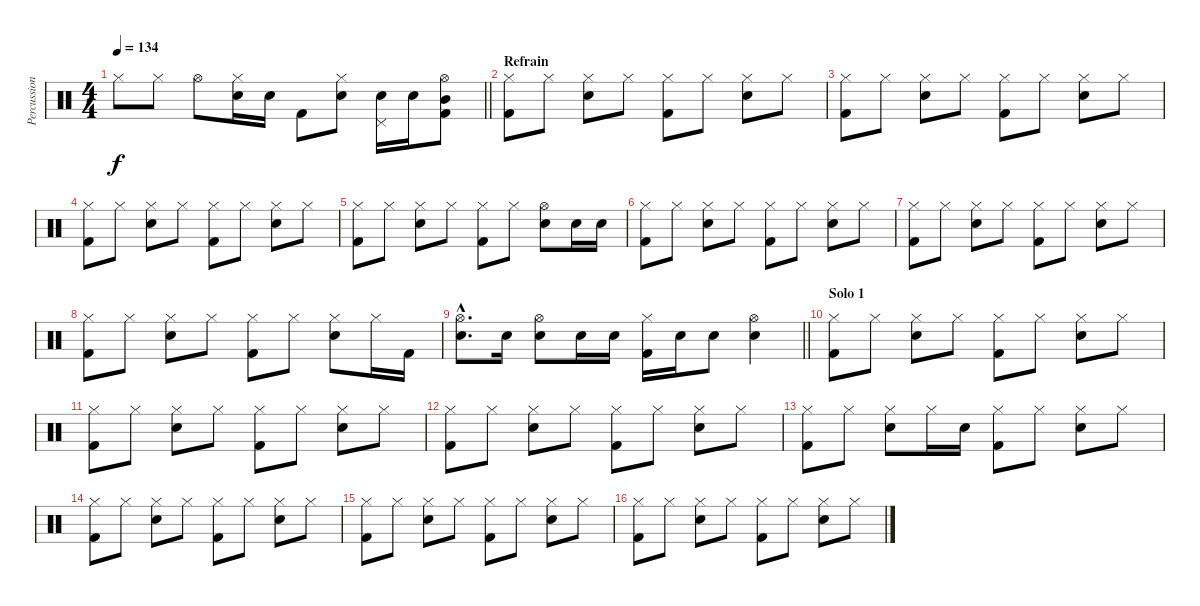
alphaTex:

\track ("Percussion" "Percussion") {instrument percussion}
\staff {score}
\articulation defaults
\ts (4 4)
\tempo 134
\clef neutral
\barLineRight lightlight
\ks c "Hi-Hat (closed)".8{dy f} "Hi-Hat (closed)".8 "Hi-Hat (open)".8
("Hi-Hat (closed)" "Snare (hit) 2").16 "Snare (hit) 2".16 "Kick (hit) 2".8 ("Hi-Hat (closed)" "Snare (hit) 2").8 ("Pedal Hi-Hat (hit)" "Snare (hit) 2").16 "Snare (hit) 2".16 ("Hi-Hat (open)" "Mid Tom (hit)" "Kick (hit) 2").8 |
\section ("" "Refrain")
("Hi-Hat (closed)" "Kick (hit) 2").8 "Hi-Hat (closed)".8 ("Hi-Hat (closed)" "Snare (hit) 2").8 "Hi-Hat (closed)".8 ("Hi-Hat (closed)" "Kick (hit) 2").8 "Hi-Hat (closed)".8 ("Hi-Hat (closed)" "Snare (hit) 2").8 "Hi-Hat (closed)".8 |
("Hi-Hat (closed)" "Kick (hit) 2").8 "Hi-Hat (closed)".8 ("Hi-Hat (closed)" "Snare (hit) 2").8 "Hi-Hat (closed)".8 ("Hi-Hat (closed)" "Kick (hit) 2").8 "Hi-Hat (closed)".8 ("Hi-Hat (closed)" "Snare (hit) 2").8 "Hi-Hat (closed)".8 |
("Hi-Hat (closed)" "Kick (hit) 2").8 "Hi-Hat (closed)".8 ("Hi-Hat (closed)" "Snare (hit) 2").8 "Hi-Hat (closed)".8 ("Hi-Hat (closed)" "Kick (hit) 2").8 "Hi-Hat (closed)".8 ("Hi-Hat (closed)" "Snare (hit) 2").8 "Hi-Hat (closed)".8 |
("Hi-Hat (closed)" "Kick (hit) 2").8 "Hi-Hat (closed)".8 ("Hi-Hat (closed)" "Snare (hit) 2").8 "Hi-Hat (closed)".8 ("Hi-Hat (closed)" "Kick (hit) 2").8 "Hi-Hat (closed)".8 ("Hi-Hat (open)" "Snare (hit) 2").8 "Snare (hit) 2".16 "Snare (hit) 2".16 |
("Hi-Hat (closed)" "Kick (hit) 2").8 "Hi-Hat (closed)".8 ("Hi-Hat (closed)" "Snare (hit) 2").8 "Hi-Hat (closed)".8 ("Hi-Hat (closed)" "Kick (hit) 2").8 "Hi-Hat (closed)".8 ("Hi-Hat (closed)" "Snare (hit) 2").8 "Hi-Hat (closed)".8 |
("Hi-Hat (closed)" "Kick (hit) 2").8 "Hi-Hat (closed)".8 ("Hi-Hat (closed)" "Snare (hit) 2").8 "Hi-Hat (closed)".8 ("Hi-Hat (closed)" "Kick (hit) 2").8 "Hi-Hat (closed)".8 ("Hi-Hat (closed)" "Snare (hit) 2").8 "Hi-Hat (closed)".8 |
("Hi-Hat (closed)" "Kick (hit) 2").8 "Hi-Hat (closed)".8 ("Hi-Hat (closed)" "Snare (hit) 2").8 "Hi-Hat (closed)".8 ("Hi-Hat (closed)" "Kick (hit) 2").8 "Hi-Hat (closed)".8 ("Hi-Hat (closed)" "Snare (hit) 2").8 "Hi-Hat (closed)".16 "Kick (hit) 2".16 |
\barLineRight lightlight
("Hi-Hat (open)"{hac} "Snare (hit) 2"{hac}).8{d} "Snare (hit) 2".16 ("Hi-Hat (open)" "Snare (hit) 2").8 "Snare (hit) 2".16 "Snare (hit) 2".16 ("Hi-Hat (closed)" "Kick (hit) 2").16 "Snare (hit) 2".16 "Snare (hit) 2".8 ("Hi-Hat (open)" "Snare (hit) 2").4 |
\section ("" "Solo 1")
("Hi-Hat (closed)" "Kick (hit) 2").8 "Hi-Hat (closed)".8 ("Hi-Hat (closed)" "Snare (hit) 2").8 "Hi-Hat (closed)".8 ("Hi-Hat (closed)" "Kick (hit) 2").8 "Hi-Hat (closed)".8 ("Hi-Hat (closed)" "Snare (hit) 2").8 "Hi-Hat (closed)".8 |
("Hi-Hat (closed)" "Kick (hit) 2").8 "Hi-Hat (closed)".8 ("Hi-Hat (closed)" "Snare (hit) 2").8 "Hi-Hat (closed)".8 ("Hi-Hat (closed)" "Kick (hit) 2").8 "Hi-Hat (closed)".8 ("Hi-Hat (closed)" "Snare (hit) 2").8 "Hi-Hat (closed)".8 |
("Hi-Hat (closed)" "Kick (hit) 2").8 "Hi-Hat (closed)".8 ("Hi-Hat (closed)" "Snare (hit) 2").8 "Hi-Hat (closed)".8 ("Hi-Hat (closed)" "Kick (hit) 2").8 "Hi-Hat (closed)".8 ("Hi-Hat (closed)" "Snare (hit) 2").8 "Hi-Hat (closed)".8 |
("Hi-Hat (closed)" "Kick (hit) 2").8 "Hi-Hat (closed)".8 ("Hi-Hat (closed)" "Snare (hit) 2").8 "Hi-Hat (closed)".16 "Snare (hit) 2".16 ("Hi-Hat (closed)" "Kick (hit) 2").8 "Hi-Hat (closed)".8 ("Hi-Hat (closed)" "Snare (hit) 2").8 "Hi-Hat (closed)".8 |
("Hi-Hat (closed)" "Kick (hit) 2").8 "Hi-Hat (closed)".8 ("Hi-Hat (closed)" "Snare (hit) 2").8 "Hi-Hat (closed)".8 ("Hi-Hat (closed)" "Kick (hit) 2").8 "Hi-Hat (closed)".8 ("Hi-Hat (closed)" "Snare (hit) 2").8 "Hi-Hat (closed)".8 |
("Hi-Hat (closed)" "Kick (hit) 2").8 "Hi-Hat (closed)".8 ("Hi-Hat (closed)" "Snare (hit) 2").8 "Hi-Hat (closed)".8 ("Hi-Hat (closed)" "Kick (hit) 2").8 "Hi-Hat (closed)".8 ("Hi-Hat (closed)" "Snare (hit) 2").8 "Hi-Hat (closed)".8 |
("Hi-Hat (closed)" "Kick (hit) 2").8 "Hi-Hat (closed)".8 ("Hi-Hat (closed)" "Snare (hit) 2").8 "Hi-Hat (closed)".8 ("Hi-Hat (closed)" "Kick (hit) 2").8 "Hi-Hat (closed)".8 ("Hi-Hat (closed)" "Snare (hit) 2").8 "Hi-Hat (closed)".8
